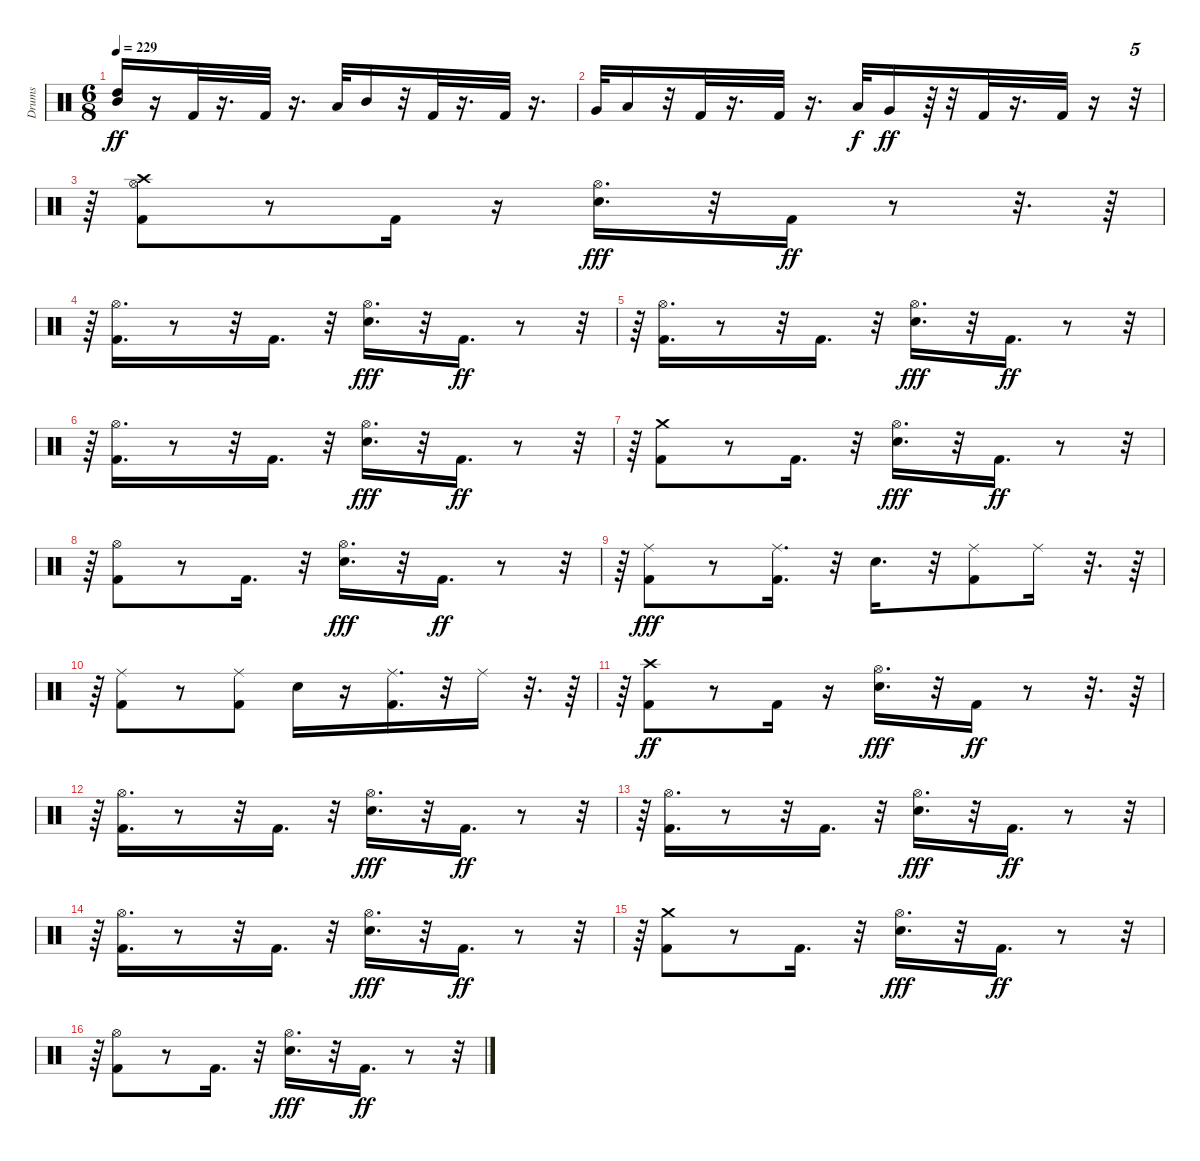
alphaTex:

\track ("Drums" "Drums") {instrument percussion}
\staff {score}
\articulation defaults
\ts (6 8)
\tempo 229
\clef neutral
\ks c
("Mid Tom (hit)" "High Tom (hit)").16{dy ff} r.16 "Kick (hit) 2".32 r.16{d} "Kick (hit) 2".32 r.16{d} "Low Tom (hit)".32 "Mid Tom (hit)".16 r.32 "Kick (hit) 2".32 r.16{d} "Kick (hit) 2".32 r.16{d} |
"Very Low Tom (hit)".32 "Low Tom (hit)".16 r.32 "Kick (hit) 2".32 r.16{d} "Kick (hit) 2".32 r.16{d} "Low Floor Tom (hit)".32{dy f} "Very Low Tom (hit)".16{dy ff} r.64 r.32 "Kick (hit) 2".32 r.16{d} "Kick (hit) 2".32 r.16 r.32{tu (5 4)} |
r.64 ("Kick (hit) 2" "Hi-Hat (open)" "Crash high (hit)").8 r.8 "Kick (hit) 2".16 r.16 ("Snare (hit) 2" "Hi-Hat (open)").16{d dy fff} r.32 "Kick (hit) 2".16{dy ff} r.8 r.32{d} r.64 |
r.64 ("Kick (hit) 2" "Hi-Hat (open)").16{d} r.8 r.32 "Kick (hit) 2".16{d} r.32 ("Snare (hit) 2" "Hi-Hat (open)").16{d dy fff} r.32 "Kick (hit) 2".16{d dy ff} r.8 r.32{tu (5 4)} |
r.64 ("Kick (hit) 2" "Hi-Hat (open)").16{d} r.8 r.32 "Kick (hit) 2".16{d} r.32 ("Snare (hit) 2" "Hi-Hat (open)").16{d dy fff} r.32 "Kick (hit) 2".16{d dy ff} r.8 r.32{tu (5 4)} |
r.64 ("Kick (hit) 2" "Hi-Hat (open)").16{d} r.8 r.32 "Kick (hit) 2".16{d} r.32 ("Snare (hit) 2" "Hi-Hat (open)").16{d dy fff} r.32 "Kick (hit) 2".16{d dy ff} r.8 r.32{tu (5 4)} |
r.64 ("Kick (hit) 2" "Crash medium (hit)").8 r.8 "Kick (hit) 2".16{d} r.32 ("Snare (hit) 2" "Hi-Hat (open)").16{d dy fff} r.32 "Kick (hit) 2".16{d dy ff} r.8 r.32{tu (5 4)} |
r.64 ("Kick (hit) 2" "Hi-Hat (open)").8 r.8 "Kick (hit) 2".16{d} r.32 ("Snare (hit) 2" "Hi-Hat (open)").16{d dy fff} r.32 "Kick (hit) 2".16{d dy ff} r.8 r.32{tu (5 4)} |
r.64 ("Kick (hit) 2" "Ride (middle)").8{dy fff} r.8 ("Kick (hit) 2" "Ride (middle)").16{d} r.32 "Snare (hit) 2".16{d} r.32 ("Kick (hit) 2" "Ride (middle)").8 "Ride (middle)".16 r.32{d} r.64 |
r.64 ("Kick (hit) 2" "Ride (middle)").8 r.8 ("Kick (hit) 2" "Ride (middle)").8 "Snare (hit) 2".16 r.16 ("Kick (hit) 2" "Ride (middle)").16{d} r.32 "Ride (middle)".16 r.32{d} r.64 |
r.64 ("Kick (hit) 2" "Crash high (hit)").8{dy ff} r.8 "Kick (hit) 2".16 r.16 ("Snare (hit) 2" "Hi-Hat (open)").16{d dy fff} r.32 "Kick (hit) 2".16{dy ff} r.8 r.32{d} r.64 |
r.64 ("Kick (hit) 2" "Hi-Hat (open)").16{d} r.8 r.32 "Kick (hit) 2".16{d} r.32 ("Snare (hit) 2" "Hi-Hat (open)").16{d dy fff} r.32 "Kick (hit) 2".16{d dy ff} r.8 r.32{tu (5 4)} |
r.64 ("Kick (hit) 2" "Hi-Hat (open)").16{d} r.8 r.32 "Kick (hit) 2".16{d} r.32 ("Snare (hit) 2" "Hi-Hat (open)").16{d dy fff} r.32 "Kick (hit) 2".16{d dy ff} r.8 r.32{tu (5 4)} |
r.64 ("Kick (hit) 2" "Hi-Hat (open)").16{d} r.8 r.32 "Kick (hit) 2".16{d} r.32 ("Snare (hit) 2" "Hi-Hat (open)").16{d dy fff} r.32 "Kick (hit) 2".16{d dy ff} r.8 r.32{tu (5 4)} |
r.64 ("Kick (hit) 2" "Crash medium (hit)").8 r.8 "Kick (hit) 2".16{d} r.32 ("Snare (hit) 2" "Hi-Hat (open)").16{d dy fff} r.32 "Kick (hit) 2".16{d dy ff} r.8 r.32{tu (5 4)} |
r.64 ("Kick (hit) 2" "Hi-Hat (open)").8 r.8 "Kick (hit) 2".16{d} r.32 ("Snare (hit) 2" "Hi-Hat (open)").16{d dy fff} r.32 "Kick (hit) 2".16{d dy ff} r.8 r.32{tu (5 4)}
